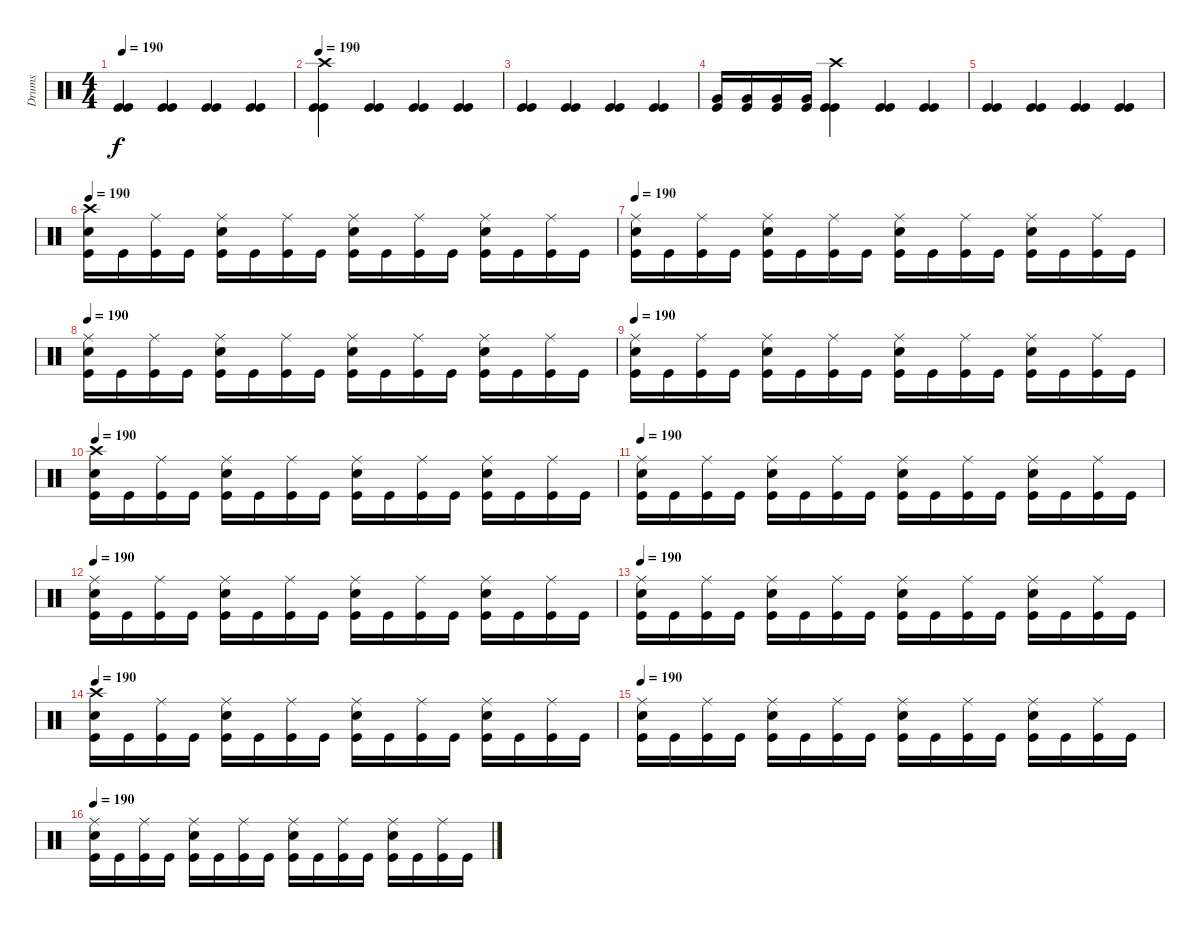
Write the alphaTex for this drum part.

\track ("Drums" "Drums") {instrument percussion}
\staff {score}
\articulation defaults
\ts (4 4)
\tempo 190
\clef neutral
\ks c
("Kick (hit)" "Kick (hit)").4{dy f} ("Kick (hit)" "Kick (hit)").4 ("Kick (hit)" "Kick (hit)").4 ("Kick (hit)" "Kick (hit)").4 |
\tempo 190
("Crash high (hit)" "Kick (hit)" "Kick (hit)").4 ("Kick (hit)" "Kick (hit)").4 ("Kick (hit)" "Kick (hit)").4 ("Kick (hit)" "Kick (hit)").4 |
("Kick (hit)" "Kick (hit)").4 ("Kick (hit)" "Kick (hit)").4 ("Kick (hit)" "Kick (hit)").4 ("Kick (hit)" "Kick (hit)").4 |
("Very Low Tom (hit)" "Kick (hit)").16 ("Very Low Tom (hit)" "Kick (hit)").16 ("Very Low Tom (hit)" "Kick (hit)").16 ("Very Low Tom (hit)" "Kick (hit)").16 ("Crash high (hit)" "Kick (hit)" "Kick (hit)").4 ("Kick (hit)" "Kick (hit)").4 ("Kick (hit)" "Kick (hit)").4 |
("Kick (hit)" "Kick (hit)").4 ("Kick (hit)" "Kick (hit)").4 ("Kick (hit)" "Kick (hit)").4 ("Kick (hit)" "Kick (hit)").4 |
\tempo 190
("Crash high (hit)" "Snare (hit) 2" "Kick (hit)").16 "Kick (hit)".16 ("Ride (middle)" "Kick (hit)").16 "Kick (hit)".16 ("Ride (middle)" "Snare (hit) 2" "Kick (hit)").16 "Kick (hit)".16 ("Ride (middle)" "Kick (hit)").16 "Kick (hit)".16 ("Ride (middle)" "Snare (hit) 2" "Kick (hit)").16 "Kick (hit)".16 ("Ride (middle)" "Kick (hit)").16 "Kick (hit)".16 ("Ride (middle)" "Snare (hit) 2" "Kick (hit)").16 "Kick (hit)".16 ("Ride (middle)" "Kick (hit)").16 "Kick (hit)".16 |
\tempo 190
("Ride (middle)" "Snare (hit) 2" "Kick (hit)").16 "Kick (hit)".16 ("Ride (middle)" "Kick (hit)").16 "Kick (hit)".16 ("Ride (middle)" "Snare (hit) 2" "Kick (hit)").16 "Kick (hit)".16 ("Ride (middle)" "Kick (hit)").16 "Kick (hit)".16 ("Ride (middle)" "Snare (hit) 2" "Kick (hit)").16 "Kick (hit)".16 ("Ride (middle)" "Kick (hit)").16 "Kick (hit)".16 ("Ride (middle)" "Snare (hit) 2" "Kick (hit)").16 "Kick (hit)".16 ("Ride (middle)" "Kick (hit)").16 "Kick (hit)".16 |
\tempo 190
("Ride (middle)" "Snare (hit) 2" "Kick (hit)").16 "Kick (hit)".16 ("Ride (middle)" "Kick (hit)").16 "Kick (hit)".16 ("Ride (middle)" "Snare (hit) 2" "Kick (hit)").16 "Kick (hit)".16 ("Ride (middle)" "Kick (hit)").16 "Kick (hit)".16 ("Ride (middle)" "Snare (hit) 2" "Kick (hit)").16 "Kick (hit)".16 ("Ride (middle)" "Kick (hit)").16 "Kick (hit)".16 ("Ride (middle)" "Snare (hit) 2" "Kick (hit)").16 "Kick (hit)".16 ("Ride (middle)" "Kick (hit)").16 "Kick (hit)".16 |
\tempo 190
("Ride (middle)" "Snare (hit) 2" "Kick (hit)").16 "Kick (hit)".16 ("Ride (middle)" "Kick (hit)").16 "Kick (hit)".16 ("Ride (middle)" "Snare (hit) 2" "Kick (hit)").16 "Kick (hit)".16 ("Ride (middle)" "Kick (hit)").16 "Kick (hit)".16 ("Ride (middle)" "Snare (hit) 2" "Kick (hit)").16 "Kick (hit)".16 ("Ride (middle)" "Kick (hit)").16 "Kick (hit)".16 ("Ride (middle)" "Snare (hit) 2" "Kick (hit)").16 "Kick (hit)".16 ("Ride (middle)" "Kick (hit)").16 "Kick (hit)".16 |
\tempo 190
("Crash high (hit)" "Snare (hit) 2" "Kick (hit)").16 "Kick (hit)".16 ("Ride (middle)" "Kick (hit)").16 "Kick (hit)".16 ("Ride (middle)" "Snare (hit) 2" "Kick (hit)").16 "Kick (hit)".16 ("Ride (middle)" "Kick (hit)").16 "Kick (hit)".16 ("Ride (middle)" "Snare (hit) 2" "Kick (hit)").16 "Kick (hit)".16 ("Ride (middle)" "Kick (hit)").16 "Kick (hit)".16 ("Ride (middle)" "Snare (hit) 2" "Kick (hit)").16 "Kick (hit)".16 ("Ride (middle)" "Kick (hit)").16 "Kick (hit)".16 |
\tempo 190
("Ride (middle)" "Snare (hit) 2" "Kick (hit)").16 "Kick (hit)".16 ("Ride (middle)" "Kick (hit)").16 "Kick (hit)".16 ("Ride (middle)" "Snare (hit) 2" "Kick (hit)").16 "Kick (hit)".16 ("Ride (middle)" "Kick (hit)").16 "Kick (hit)".16 ("Ride (middle)" "Snare (hit) 2" "Kick (hit)").16 "Kick (hit)".16 ("Ride (middle)" "Kick (hit)").16 "Kick (hit)".16 ("Ride (middle)" "Snare (hit) 2" "Kick (hit)").16 "Kick (hit)".16 ("Ride (middle)" "Kick (hit)").16 "Kick (hit)".16 |
\tempo 190
("Ride (middle)" "Snare (hit) 2" "Kick (hit)").16 "Kick (hit)".16 ("Ride (middle)" "Kick (hit)").16 "Kick (hit)".16 ("Ride (middle)" "Snare (hit) 2" "Kick (hit)").16 "Kick (hit)".16 ("Ride (middle)" "Kick (hit)").16 "Kick (hit)".16 ("Ride (middle)" "Snare (hit) 2" "Kick (hit)").16 "Kick (hit)".16 ("Ride (middle)" "Kick (hit)").16 "Kick (hit)".16 ("Ride (middle)" "Snare (hit) 2" "Kick (hit)").16 "Kick (hit)".16 ("Ride (middle)" "Kick (hit)").16 "Kick (hit)".16 |
\tempo 190
("Ride (middle)" "Snare (hit) 2" "Kick (hit)").16 "Kick (hit)".16 ("Ride (middle)" "Kick (hit)").16 "Kick (hit)".16 ("Ride (middle)" "Snare (hit) 2" "Kick (hit)").16 "Kick (hit)".16 ("Ride (middle)" "Kick (hit)").16 "Kick (hit)".16 ("Ride (middle)" "Snare (hit) 2" "Kick (hit)").16 "Kick (hit)".16 ("Ride (middle)" "Kick (hit)").16 "Kick (hit)".16 ("Ride (middle)" "Snare (hit) 2" "Kick (hit)").16 "Kick (hit)".16 ("Ride (middle)" "Kick (hit)").16 "Kick (hit)".16 |
\tempo 190
("Crash high (hit)" "Snare (hit) 2" "Kick (hit)").16 "Kick (hit)".16 ("Ride (middle)" "Kick (hit)").16 "Kick (hit)".16 ("Ride (middle)" "Snare (hit) 2" "Kick (hit)").16 "Kick (hit)".16 ("Ride (middle)" "Kick (hit)").16 "Kick (hit)".16 ("Ride (middle)" "Snare (hit) 2" "Kick (hit)").16 "Kick (hit)".16 ("Ride (middle)" "Kick (hit)").16 "Kick (hit)".16 ("Ride (middle)" "Snare (hit) 2" "Kick (hit)").16 "Kick (hit)".16 ("Ride (middle)" "Kick (hit)").16 "Kick (hit)".16 |
\tempo 190
("Ride (middle)" "Snare (hit) 2" "Kick (hit)").16 "Kick (hit)".16 ("Ride (middle)" "Kick (hit)").16 "Kick (hit)".16 ("Ride (middle)" "Snare (hit) 2" "Kick (hit)").16 "Kick (hit)".16 ("Ride (middle)" "Kick (hit)").16 "Kick (hit)".16 ("Ride (middle)" "Snare (hit) 2" "Kick (hit)").16 "Kick (hit)".16 ("Ride (middle)" "Kick (hit)").16 "Kick (hit)".16 ("Ride (middle)" "Snare (hit) 2" "Kick (hit)").16 "Kick (hit)".16 ("Ride (middle)" "Kick (hit)").16 "Kick (hit)".16 |
\tempo 190
("Ride (middle)" "Snare (hit) 2" "Kick (hit)").16 "Kick (hit)".16 ("Ride (middle)" "Kick (hit)").16 "Kick (hit)".16 ("Ride (middle)" "Snare (hit) 2" "Kick (hit)").16 "Kick (hit)".16 ("Ride (middle)" "Kick (hit)").16 "Kick (hit)".16 ("Ride (middle)" "Snare (hit) 2" "Kick (hit)").16 "Kick (hit)".16 ("Ride (middle)" "Kick (hit)").16 "Kick (hit)".16 ("Ride (middle)" "Snare (hit) 2" "Kick (hit)").16 "Kick (hit)".16 ("Ride (middle)" "Kick (hit)").16 "Kick (hit)".16
